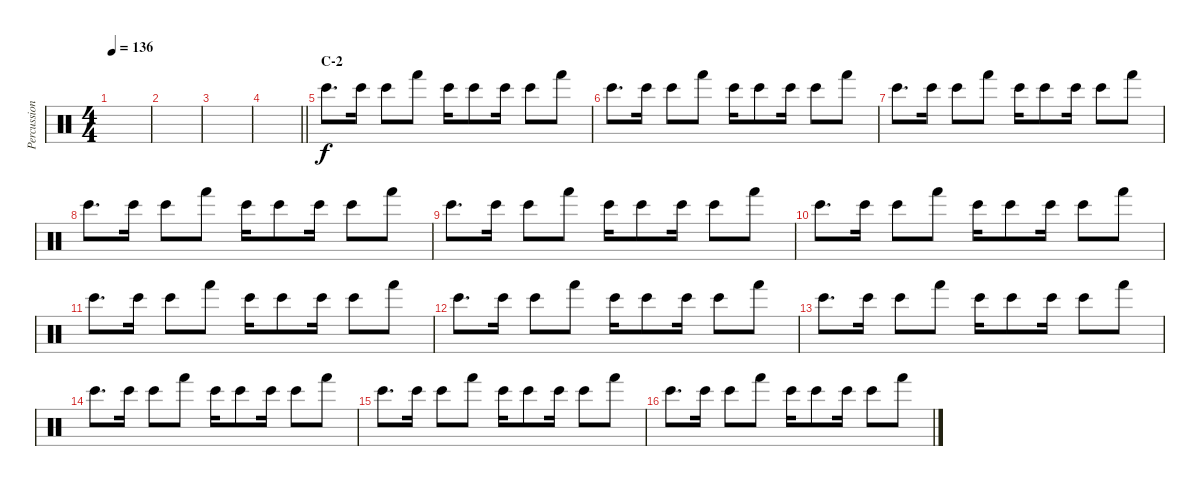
\track ("Percussion" "Percussion") {instrument percussion}
\staff {score}
\articulation defaults
\ts (4 4)
\tempo 136
\clef neutral
\ks c
|
|
|
\barLineRight lightlight
|
\section ("" "C-2")
"Bongo High (hit)".8{d} "Bongo High (hit)".16 "Bongo High (hit)".8 "Hand (hit)".8 "Bongo High (hit)".16 "Bongo High (hit)".8 "Bongo High (hit)".16 "Bongo High (hit)".8 "Hand (hit)".8 |
"Bongo High (hit)".8{d} "Bongo High (hit)".16 "Bongo High (hit)".8 "Hand (hit)".8 "Bongo High (hit)".16 "Bongo High (hit)".8 "Bongo High (hit)".16 "Bongo High (hit)".8 "Hand (hit)".8 |
"Bongo High (hit)".8{d} "Bongo High (hit)".16 "Bongo High (hit)".8 "Hand (hit)".8 "Bongo High (hit)".16 "Bongo High (hit)".8 "Bongo High (hit)".16 "Bongo High (hit)".8 "Hand (hit)".8 |
"Bongo High (hit)".8{d} "Bongo High (hit)".16 "Bongo High (hit)".8 "Hand (hit)".8 "Bongo High (hit)".16 "Bongo High (hit)".8 "Bongo High (hit)".16 "Bongo High (hit)".8 "Hand (hit)".8 |
"Bongo High (hit)".8{d} "Bongo High (hit)".16 "Bongo High (hit)".8 "Hand (hit)".8 "Bongo High (hit)".16 "Bongo High (hit)".8 "Bongo High (hit)".16 "Bongo High (hit)".8 "Hand (hit)".8 |
"Bongo High (hit)".8{d} "Bongo High (hit)".16 "Bongo High (hit)".8 "Hand (hit)".8 "Bongo High (hit)".16 "Bongo High (hit)".8 "Bongo High (hit)".16 "Bongo High (hit)".8 "Hand (hit)".8 |
"Bongo High (hit)".8{d} "Bongo High (hit)".16 "Bongo High (hit)".8 "Hand (hit)".8 "Bongo High (hit)".16 "Bongo High (hit)".8 "Bongo High (hit)".16 "Bongo High (hit)".8 "Hand (hit)".8 |
"Bongo High (hit)".8{d} "Bongo High (hit)".16 "Bongo High (hit)".8 "Hand (hit)".8 "Bongo High (hit)".16 "Bongo High (hit)".8 "Bongo High (hit)".16 "Bongo High (hit)".8 "Hand (hit)".8 |
"Bongo High (hit)".8{d} "Bongo High (hit)".16 "Bongo High (hit)".8 "Hand (hit)".8 "Bongo High (hit)".16 "Bongo High (hit)".8 "Bongo High (hit)".16 "Bongo High (hit)".8 "Hand (hit)".8 |
"Bongo High (hit)".8{d} "Bongo High (hit)".16 "Bongo High (hit)".8 "Hand (hit)".8 "Bongo High (hit)".16 "Bongo High (hit)".8 "Bongo High (hit)".16 "Bongo High (hit)".8 "Hand (hit)".8 |
"Bongo High (hit)".8{d} "Bongo High (hit)".16 "Bongo High (hit)".8 "Hand (hit)".8 "Bongo High (hit)".16 "Bongo High (hit)".8 "Bongo High (hit)".16 "Bongo High (hit)".8 "Hand (hit)".8 |
"Bongo High (hit)".8{d} "Bongo High (hit)".16 "Bongo High (hit)".8 "Hand (hit)".8 "Bongo High (hit)".16 "Bongo High (hit)".8 "Bongo High (hit)".16 "Bongo High (hit)".8 "Hand (hit)".8
